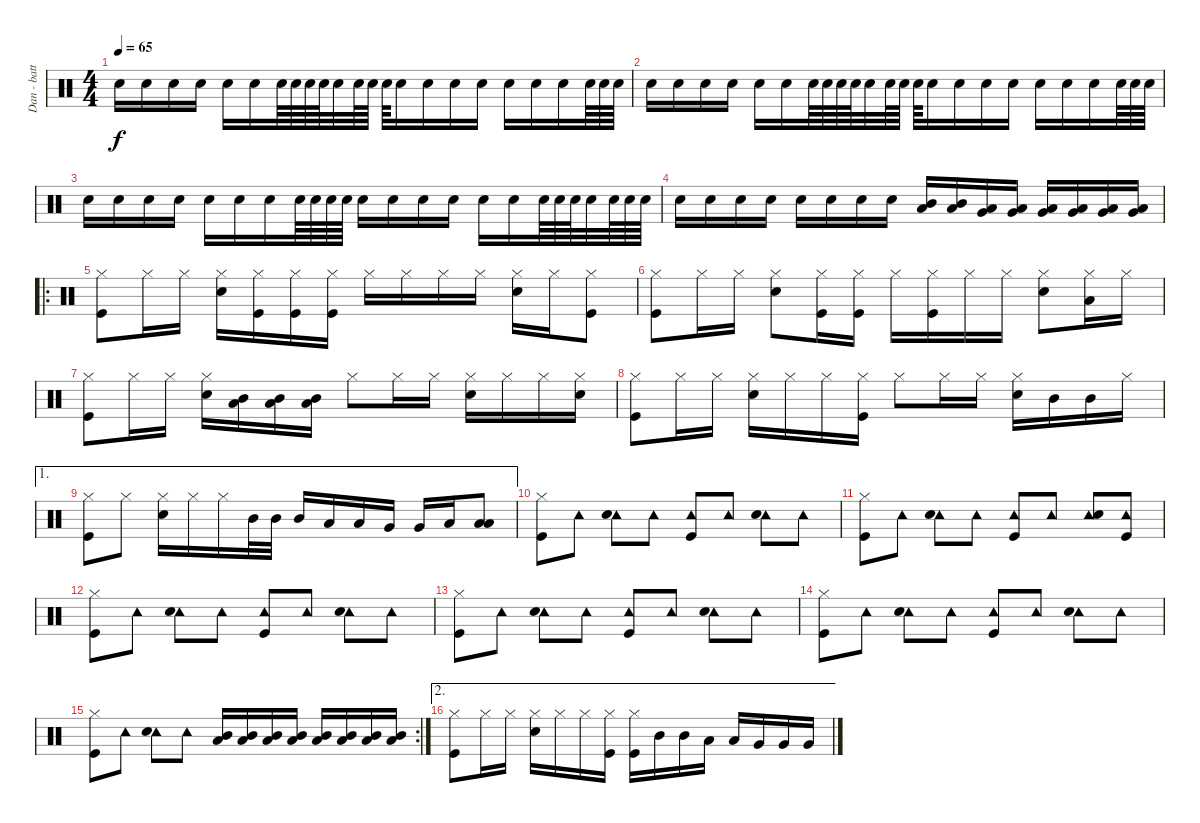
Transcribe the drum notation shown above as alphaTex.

\track ("Dan - batterie" "Dan - batt") {instrument percussion}
\staff {score}
\articulation defaults
\ts (4 4)
\tempo 65
\clef neutral
\ks c "Snare (hit) 2".16{dy f} "Snare (hit) 2".16 "Snare (hit) 2".16 "Snare (hit) 2".16 "Snare (hit) 2".16 "Snare (hit) 2".16 "Snare (hit) 2".64 "Snare (hit) 2".64 "Snare (hit) 2".64 "Snare (hit) 2".64 "Snare (hit) 2".32 "Snare (hit) 2".64 "Snare (hit) 2".64 "Snare (hit) 2".64 "Snare (hit) 2".16 "Snare (hit) 2".16 "Snare (hit) 2".16 "Snare (hit) 2".16 "Snare (hit) 2".16 "Snare (hit) 2".16 "Snare (hit) 2".16 "Snare (hit) 2".64 "Snare (hit) 2".64 "Snare (hit) 2".64
|
"Snare (hit) 2".16 "Snare (hit) 2".16 "Snare (hit) 2".16 "Snare (hit) 2".16 "Snare (hit) 2".16 "Snare (hit) 2".16 "Snare (hit) 2".64 "Snare (hit) 2".64 "Snare (hit) 2".64 "Snare (hit) 2".64 "Snare (hit) 2".32 "Snare (hit) 2".64 "Snare (hit) 2".64 "Snare (hit) 2".64 "Snare (hit) 2".16 "Snare (hit) 2".16 "Snare (hit) 2".16 "Snare (hit) 2".16 "Snare (hit) 2".16 "Snare (hit) 2".16 "Snare (hit) 2".16 "Snare (hit) 2".64 "Snare (hit) 2".64 "Snare (hit) 2".64 |
"Snare (hit) 2".16 "Snare (hit) 2".16 "Snare (hit) 2".16 "Snare (hit) 2".16 "Snare (hit) 2".16 "Snare (hit) 2".16 "Snare (hit) 2".16 "Snare (hit) 2".64 "Snare (hit) 2".64 "Snare (hit) 2".64 "Snare (hit) 2".64 "Snare (hit) 2".16 "Snare (hit) 2".16 "Snare (hit) 2".16 "Snare (hit) 2".16 "Snare (hit) 2".16 "Snare (hit) 2".16 "Snare (hit) 2".64 "Snare (hit) 2".64 "Snare (hit) 2".64 "Snare (hit) 2".32 "Snare (hit) 2".64 "Snare (hit) 2".64 "Snare (hit) 2".64 |
"Snare (hit) 2".16 "Snare (hit) 2".16 "Snare (hit) 2".16 "Snare (hit) 2".16 "Snare (hit) 2".16 "Snare (hit) 2".16 "Snare (hit) 2".16 "Snare (hit) 2".16 ("Mid Tom (hit)" "Low Tom (hit)").16 ("Mid Tom (hit)" "Low Tom (hit)").16 ("Low Tom (hit)" "Very Low Tom (hit)").16 ("Low Tom (hit)" "Very Low Tom (hit)").16 ("Very Low Tom (hit)" "Low Floor Tom (hit)").16 ("Very Low Tom (hit)" "Low Floor Tom (hit)").16 ("Very Low Tom (hit)" "Low Floor Tom (hit)").16 ("Very Low Tom (hit)" "Low Floor Tom (hit)").16 |
\ro
("Hi-Hat (closed)" "Kick (hit)").8 "Hi-Hat (closed)".16 "Hi-Hat (closed)".16 ("Hi-Hat (closed)" "Snare (hit) 2").16 ("Hi-Hat (closed)" "Kick (hit)").16 ("Hi-Hat (closed)" "Kick (hit)").16 ("Hi-Hat (closed)" "Kick (hit)").16 "Hi-Hat (closed)".16 "Hi-Hat (closed)".16 "Hi-Hat (closed)".16 "Hi-Hat (closed)".16 ("Hi-Hat (closed)" "Snare (hit) 2").16 "Hi-Hat (closed)".16 ("Hi-Hat (closed)" "Kick (hit)").8 |
("Hi-Hat (closed)" "Kick (hit)").8 "Hi-Hat (closed)".16 "Hi-Hat (closed)".16 ("Hi-Hat (closed)" "Snare (hit) 2").8 ("Hi-Hat (closed)" "Kick (hit)").16 ("Hi-Hat (closed)" "Kick (hit)").16 "Hi-Hat (closed)".16 ("Hi-Hat (closed)" "Kick (hit)").16 "Hi-Hat (closed)".16 "Hi-Hat (closed)".16 ("Hi-Hat (closed)" "Snare (hit) 2").8 ("Hi-Hat (closed)" "Low Tom (hit)").16 "Hi-Hat (closed)".16 |
("Hi-Hat (closed)" "Kick (hit)").8 "Hi-Hat (closed)".16 "Hi-Hat (closed)".16 ("Hi-Hat (closed)" "Snare (hit) 2").16 ("Mid Tom (hit)" "Low Tom (hit)").16 ("Mid Tom (hit)" "Low Tom (hit)").16 ("Mid Tom (hit)" "Low Tom (hit)").16 "Hi-Hat (closed)".8 "Hi-Hat (closed)".16 "Hi-Hat (closed)".16 ("Hi-Hat (closed)" "Snare (hit) 2").16 "Hi-Hat (closed)".16 "Hi-Hat (closed)".16 ("Hi-Hat (closed)" "Snare (hit) 2").16 |
("Hi-Hat (closed)" "Kick (hit)").8 "Hi-Hat (closed)".16 "Hi-Hat (closed)".16 ("Hi-Hat (closed)" "Snare (hit) 2").16 "Hi-Hat (closed)".16 "Hi-Hat (closed)".16 ("Hi-Hat (closed)" "Kick (hit)").16 "Hi-Hat (closed)".8 "Hi-Hat (closed)".16 "Hi-Hat (closed)".16 ("Hi-Hat (closed)" "Snare (hit) 2").16 "Mid Tom (hit)".16 "Mid Tom (hit)".16 "Hi-Hat (closed)".16 |
\ae 1
("Hi-Hat (closed)" "Kick (hit)").8 "Hi-Hat (closed)".8 ("Hi-Hat (closed)" "Snare (hit) 2").16 "Hi-Hat (closed)".16 "Hi-Hat (closed)".16 "Mid Tom (hit)".32 "Mid Tom (hit)".32 "Mid Tom (hit)".16 "Low Tom (hit)".16 "Low Tom (hit)".16 "Very Low Tom (hit)".16 "Very Low Tom (hit)".16 "Low Floor Tom (hit)".16 ("Low Tom (hit)" "Low Floor Tom (hit)").8 |
("Hi-Hat (closed)" "Kick (hit)").8 "Tambourine (hit)".8 ("Tambourine (hit)" "Snare (hit) 2").8 "Tambourine (hit)".8 ("Tambourine (hit)" "Kick (hit)").8 "Tambourine (hit)".8 ("Tambourine (hit)" "Snare (hit) 2").8 "Tambourine (hit)".8 |
("Hi-Hat (closed)" "Kick (hit)").8 "Tambourine (hit)".8 ("Tambourine (hit)" "Snare (hit) 2").8 "Tambourine (hit)".8 ("Tambourine (hit)" "Kick (hit)").8 "Tambourine (hit)".8 ("Tambourine (hit)" "Snare (hit) 2").8 ("Tambourine (hit)" "Kick (hit)").8 |
("Hi-Hat (closed)" "Kick (hit)").8 "Tambourine (hit)".8 ("Tambourine (hit)" "Snare (hit) 2").8 "Tambourine (hit)".8 ("Tambourine (hit)" "Kick (hit)").8 "Tambourine (hit)".8 ("Tambourine (hit)" "Snare (hit) 2").8 "Tambourine (hit)".8 |
("Hi-Hat (closed)" "Kick (hit)").8 "Tambourine (hit)".8 ("Tambourine (hit)" "Snare (hit) 2").8 "Tambourine (hit)".8 ("Tambourine (hit)" "Kick (hit)").8 "Tambourine (hit)".8 ("Tambourine (hit)" "Snare (hit) 2").8 "Tambourine (hit)".8 |
("Hi-Hat (closed)" "Kick (hit)").8 "Tambourine (hit)".8 ("Tambourine (hit)" "Snare (hit) 2").8 "Tambourine (hit)".8 ("Tambourine (hit)" "Kick (hit)").8 "Tambourine (hit)".8 ("Tambourine (hit)" "Snare (hit) 2").8 "Tambourine (hit)".8 |
\rc 2
("Hi-Hat (closed)" "Kick (hit)").8 "Tambourine (hit)".8 ("Tambourine (hit)" "Snare (hit) 2").8 "Tambourine (hit)".8 ("Mid Tom (hit)" "Low Tom (hit)").16 ("Mid Tom (hit)" "Low Tom (hit)").16 ("Mid Tom (hit)" "Low Tom (hit)").16 ("Mid Tom (hit)" "Low Tom (hit)").16 ("Mid Tom (hit)" "Low Tom (hit)").16 ("Mid Tom (hit)" "Low Tom (hit)").16 ("Mid Tom (hit)" "Low Tom (hit)").16 ("Mid Tom (hit)" "Low Tom (hit)").16 |
\ae 2
("Hi-Hat (closed)" "Kick (hit)").8 "Hi-Hat (closed)".16 "Hi-Hat (closed)".16 ("Hi-Hat (closed)" "Snare (hit) 2").16 "Hi-Hat (closed)".16 "Hi-Hat (closed)".16 ("Hi-Hat (closed)" "Kick (hit)").16 ("Hi-Hat (closed)" "Kick (hit)").16 "Mid Tom (hit)".16 "Mid Tom (hit)".16 "Low Tom (hit)".16 "Low Tom (hit)".16 "Very Low Tom (hit)".16 "Very Low Tom (hit)".16 "Very Low Tom (hit)".16
